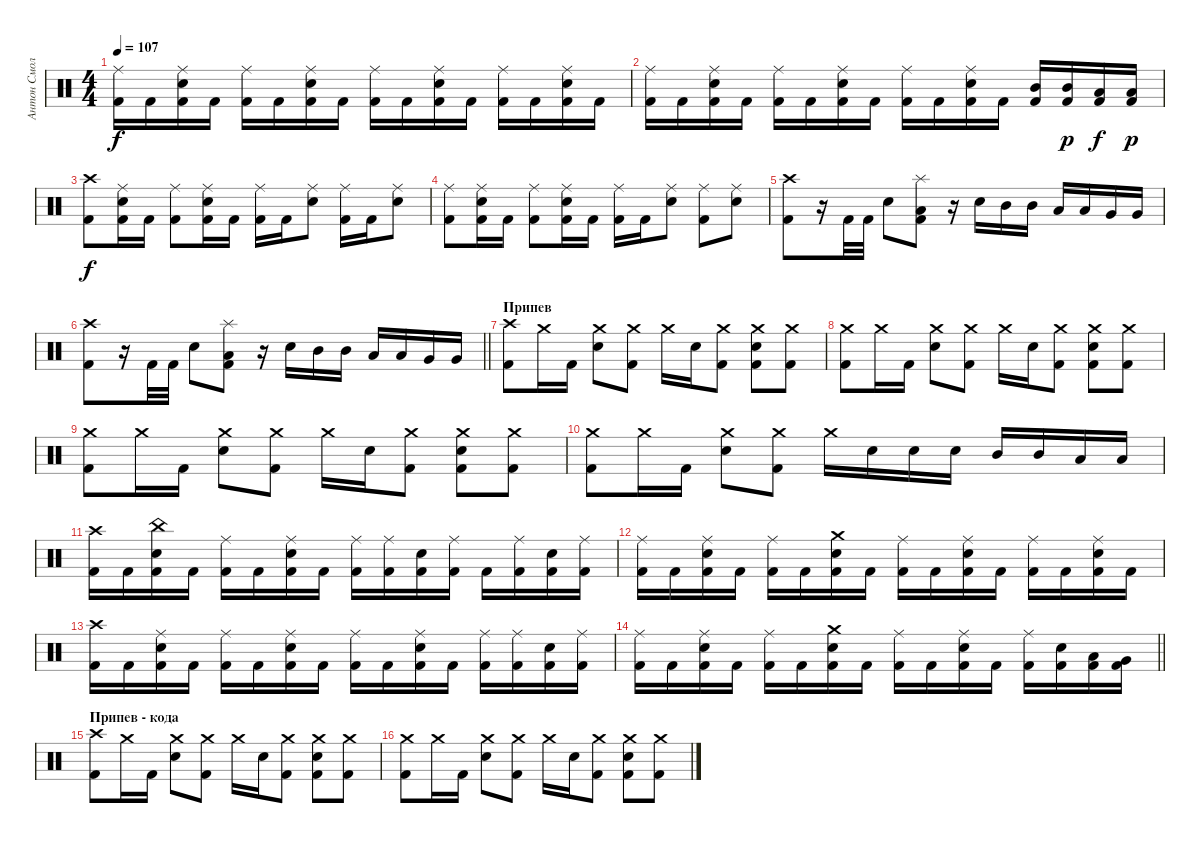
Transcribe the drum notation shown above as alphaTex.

\track ("Антон Смольянин" "Антон Смол") {instrument percussion}
\staff {score}
\articulation defaults
\ts (4 4)
\tempo 107
\clef neutral
\ks c
("Ride (middle)" "Kick (hit) 2").16{dy f} "Kick (hit) 2".16 ("Ride (middle)" "Electric Snare (hit)" "Kick (hit) 2").16 "Kick (hit) 2".16 ("Ride (middle)" "Kick (hit) 2").16 "Kick (hit) 2".16 ("Ride (middle)" "Electric Snare (hit)" "Kick (hit) 2").16 "Kick (hit) 2".16 ("Ride (middle)" "Kick (hit) 2").16 "Kick (hit) 2".16 ("Ride (middle)" "Electric Snare (hit)" "Kick (hit) 2").16 "Kick (hit) 2".16 ("Ride (middle)" "Kick (hit) 2").16 "Kick (hit) 2".16 ("Ride (middle)" "Electric Snare (hit)" "Kick (hit) 2").16 "Kick (hit) 2".16 |
("Ride (middle)" "Kick (hit) 2").16 "Kick (hit) 2".16 ("Ride (middle)" "Electric Snare (hit)" "Kick (hit) 2").16 "Kick (hit) 2".16 ("Ride (middle)" "Kick (hit) 2").16 "Kick (hit) 2".16 ("Ride (middle)" "Electric Snare (hit)" "Kick (hit) 2").16 "Kick (hit) 2".16 ("Ride (middle)" "Kick (hit) 2").16 "Kick (hit) 2".16 ("Ride (middle)" "Electric Snare (hit)" "Kick (hit) 2").16 "Kick (hit) 2".16 ("Mid Tom (hit)" "Kick (hit) 2").16 ("Mid Tom (hit)" "Kick (hit) 2").16{dy p} ("Low Tom (hit)" "Kick (hit) 2").16{dy f} ("Low Tom (hit)" "Kick (hit) 2").16{dy p} |
("Crash high (hit)" "Kick (hit) 2").8{dy f} ("Ride (middle)" "Electric Snare (hit)" "Kick (hit) 2").16 "Kick (hit) 2".16 ("Ride (middle)" "Kick (hit) 2").8 ("Ride (middle)" "Electric Snare (hit)" "Kick (hit) 2").16 "Kick (hit) 2".16 ("Ride (middle)" "Kick (hit) 2").16 "Kick (hit) 2".16 ("Ride (middle)" "Electric Snare (hit)").8 ("Ride (middle)" "Kick (hit) 2").16 "Kick (hit) 2".16 ("Ride (middle)" "Electric Snare (hit)").8 |
("Ride (middle)" "Kick (hit) 2").8 ("Ride (middle)" "Electric Snare (hit)" "Kick (hit) 2").16 "Kick (hit) 2".16 ("Ride (middle)" "Kick (hit) 2").8 ("Ride (middle)" "Electric Snare (hit)" "Kick (hit) 2").16 "Kick (hit) 2".16 ("Ride (middle)" "Kick (hit) 2").16 "Kick (hit) 2".16 ("Ride (middle)" "Electric Snare (hit)").8 ("Ride (middle)" "Kick (hit) 2").8 ("Ride (middle)" "Electric Snare (hit)").8 |
("Crash high (hit)" "Kick (hit) 2").8 r.16 "Kick (hit) 2".32 "Kick (hit) 2".32 "Electric Snare (hit)".8 ("Splash (hit)" "Low Tom (hit)" "Kick (hit) 2").8 r.16 "Electric Snare (hit)".16 "Mid Tom (hit)".16 "Mid Tom (hit)".16 "Low Tom (hit)".16 "Low Tom (hit)".16 "Very Low Tom (hit)".16 "Very Low Tom (hit)".16 |
\barLineRight lightlight
("Crash high (hit)" "Kick (hit) 2").8 r.16 "Kick (hit) 2".32 "Kick (hit) 2".32 "Electric Snare (hit)".8 ("Splash (hit)" "Low Tom (hit)" "Kick (hit) 2").8 r.16 "Electric Snare (hit)".16 "Mid Tom (hit)".16 "Mid Tom (hit)".16 "Low Tom (hit)".16 "Low Tom (hit)".16 "Very Low Tom (hit)".16 "Very Low Tom (hit)".16 |
\section ("" "Припев")
("Crash high (hit)" "Kick (hit) 2").8 "Crash medium (hit)".16 "Kick (hit) 2".16 ("Crash medium (hit)" "Electric Snare (hit)").8 ("Crash medium (hit)" "Kick (hit) 2").8 "Crash medium (hit)".16 "Electric Snare (hit)".16 ("Crash medium (hit)" "Kick (hit) 2").8 ("Crash medium (hit)" "Electric Snare (hit)" "Kick (hit) 2").8 ("Crash medium (hit)" "Kick (hit) 2").8 |
("Crash medium (hit)" "Kick (hit) 2").8 "Crash medium (hit)".16 "Kick (hit) 2".16 ("Crash medium (hit)" "Electric Snare (hit)").8 ("Crash medium (hit)" "Kick (hit) 2").8 "Crash medium (hit)".16 "Electric Snare (hit)".16 ("Crash medium (hit)" "Kick (hit) 2").8 ("Crash medium (hit)" "Electric Snare (hit)" "Kick (hit) 2").8 ("Crash medium (hit)" "Kick (hit) 2").8 |
("Crash medium (hit)" "Kick (hit) 2").8 "Crash medium (hit)".16 "Kick (hit) 2".16 ("Crash medium (hit)" "Electric Snare (hit)").8 ("Crash medium (hit)" "Kick (hit) 2").8 "Crash medium (hit)".16 "Electric Snare (hit)".16 ("Crash medium (hit)" "Kick (hit) 2").8 ("Crash medium (hit)" "Electric Snare (hit)" "Kick (hit) 2").8 ("Crash medium (hit)" "Kick (hit) 2").8 |
("Crash medium (hit)" "Kick (hit) 2").8 "Crash medium (hit)".16 "Kick (hit) 2".16 ("Crash medium (hit)" "Electric Snare (hit)").8 ("Crash medium (hit)" "Kick (hit) 2").8 "Crash medium (hit)".16 "Electric Snare (hit)".16 "Electric Snare (hit)".16 "Electric Snare (hit)".16 "Mid Tom (hit)".16 "Mid Tom (hit)".16 "Low Tom (hit)".16 "Low Tom (hit)".16 |
("Crash high (hit)" "Kick (hit) 2").16 "Kick (hit) 2".16 ("China (hit)" "Electric Snare (hit)" "Kick (hit) 2").16 "Kick (hit) 2".16 ("Ride (middle)" "Kick (hit) 2").16 "Kick (hit) 2".16 ("Ride (middle)" "Electric Snare (hit)" "Kick (hit) 2").16 "Kick (hit) 2".16 ("Ride (middle)" "Kick (hit) 2").16 ("Ride (middle)" "Kick (hit) 2").16 ("Electric Snare (hit)" "Kick (hit) 2").16 ("Ride (middle)" "Kick (hit) 2").16 "Kick (hit) 2".16 ("Ride (middle)" "Kick (hit) 2").16 ("Electric Snare (hit)" "Kick (hit) 2").16 ("Ride (middle)" "Kick (hit) 2").16 |
("Ride (middle)" "Kick (hit) 2").16 "Kick (hit) 2".16 ("Ride (middle)" "Electric Snare (hit)" "Kick (hit) 2").16 "Kick (hit) 2".16 ("Ride (middle)" "Kick (hit) 2").16 "Kick (hit) 2".16 ("Crash medium (hit)" "Electric Snare (hit)" "Kick (hit) 2").16 "Kick (hit) 2".16 ("Ride (middle)" "Kick (hit) 2").16 "Kick (hit) 2".16 ("Ride (middle)" "Electric Snare (hit)" "Kick (hit) 2").16 "Kick (hit) 2".16 ("Ride (middle)" "Kick (hit) 2").16 "Kick (hit) 2".16 ("Ride (middle)" "Electric Snare (hit)" "Kick (hit) 2").16 "Kick (hit) 2".16 |
("Crash high (hit)" "Kick (hit) 2").16 "Kick (hit) 2".16 ("Ride (middle)" "Electric Snare (hit)" "Kick (hit) 2").16 "Kick (hit) 2".16 ("Ride (middle)" "Kick (hit) 2").16 "Kick (hit) 2".16 ("Ride (middle)" "Electric Snare (hit)" "Kick (hit) 2").16 "Kick (hit) 2".16 ("Ride (middle)" "Kick (hit) 2").16 "Kick (hit) 2".16 ("Ride (middle)" "Electric Snare (hit)" "Kick (hit) 2").16 "Kick (hit) 2".16 ("Ride (middle)" "Kick (hit) 2").16 ("Ride (middle)" "Kick (hit) 2").16 ("Electric Snare (hit)" "Kick (hit) 2").16 ("Ride (middle)" "Kick (hit) 2").16 |
\barLineRight lightlight
("Ride (middle)" "Kick (hit) 2").16 "Kick (hit) 2".16 ("Ride (middle)" "Electric Snare (hit)" "Kick (hit) 2").16 "Kick (hit) 2".16 ("Ride (middle)" "Kick (hit) 2").16 "Kick (hit) 2".16 ("Crash medium (hit)" "Electric Snare (hit)" "Kick (hit) 2").16 "Kick (hit) 2".16 ("Ride (middle)" "Kick (hit) 2").16 "Kick (hit) 2".16 ("Ride (middle)" "Electric Snare (hit)" "Kick (hit) 2").16 "Kick (hit) 2".16 ("Ride (middle)" "Kick (hit) 2").16 ("Electric Snare (hit)" "Kick (hit) 2").16 ("Low Tom (hit)" "Kick (hit) 2").16 ("Very Low Tom (hit)" "Kick (hit) 2").16 |
\section ("" "Припев - кода")
("Crash high (hit)" "Kick (hit) 2").8 "Crash medium (hit)".16 "Kick (hit) 2".16 ("Crash medium (hit)" "Electric Snare (hit)").8 ("Crash medium (hit)" "Kick (hit) 2").8 "Crash medium (hit)".16 "Electric Snare (hit)".16 ("Crash medium (hit)" "Kick (hit) 2").8 ("Crash medium (hit)" "Electric Snare (hit)" "Kick (hit) 2").8 ("Crash medium (hit)" "Kick (hit) 2").8 |
("Crash medium (hit)" "Kick (hit) 2").8 "Crash medium (hit)".16 "Kick (hit) 2".16 ("Crash medium (hit)" "Electric Snare (hit)").8 ("Crash medium (hit)" "Kick (hit) 2").8 "Crash medium (hit)".16 "Electric Snare (hit)".16 ("Crash medium (hit)" "Kick (hit) 2").8 ("Crash medium (hit)" "Electric Snare (hit)" "Kick (hit) 2").8 ("Crash medium (hit)" "Kick (hit) 2").8
